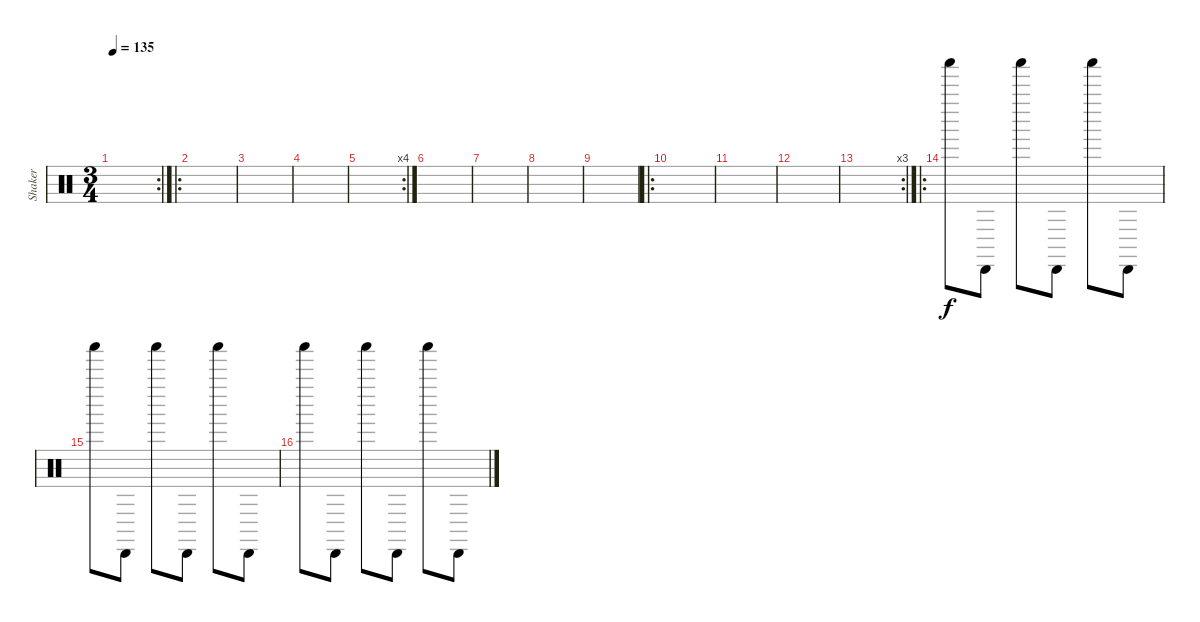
\track ("Shaker" "Shaker") {instrument percussion}
\staff {score}
\articulation defaults
\rc 2
\ts (3 4)
\tempo 135
\clef neutral
\ks c
|
\ro
|
|
|
\rc 4
|
|
|
|
|
\ro
|
|
|
\rc 3
|
\ro "Shaker (hit)".8 "Cabasa (hit)".8 "Shaker (hit)".8 "Cabasa (hit)".8 "Shaker (hit)".8 "Cabasa (hit)".8
|
"Shaker (hit)".8 "Cabasa (hit)".8 "Shaker (hit)".8 "Cabasa (hit)".8 "Shaker (hit)".8 "Cabasa (hit)".8 |
"Shaker (hit)".8 "Cabasa (hit)".8 "Shaker (hit)".8 "Cabasa (hit)".8 "Shaker (hit)".8 "Cabasa (hit)".8
